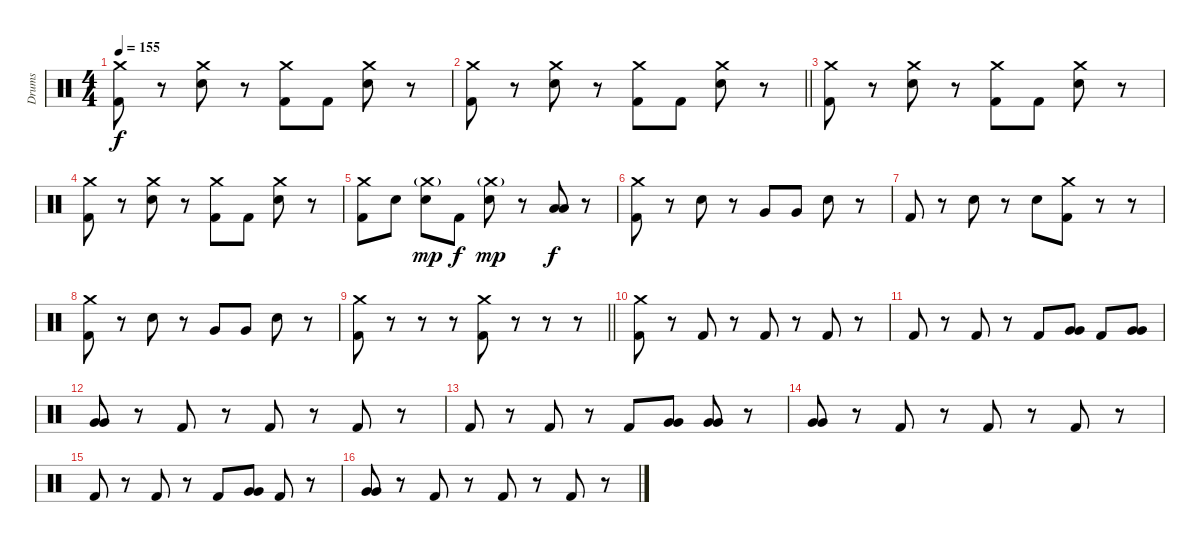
\track ("Drums" "Drums") {instrument percussion}
\staff {score}
\articulation defaults
\ts (4 4)
\tempo 155
\clef neutral
\ks c
("Crash medium (hit)" "Kick (hit) 2").8{dy f} r.8 ("Crash medium (hit)" "Electric Snare (hit)").8 r.8 ("Crash medium (hit)" "Kick (hit) 2").8 "Kick (hit) 2".8 ("Crash medium (hit)" "Electric Snare (hit)").8 r.8 |
\barLineRight lightlight
("Crash medium (hit)" "Kick (hit) 2").8 r.8 ("Crash medium (hit)" "Electric Snare (hit)").8 r.8 ("Crash medium (hit)" "Kick (hit) 2").8 "Kick (hit) 2".8 ("Crash medium (hit)" "Electric Snare (hit)").8 r.8 |
("Crash medium (hit)" "Kick (hit) 2").8 r.8 ("Crash medium (hit)" "Electric Snare (hit)").8 r.8 ("Crash medium (hit)" "Kick (hit) 2").8 "Kick (hit) 2".8 ("Crash medium (hit)" "Electric Snare (hit)").8 r.8 |
("Crash medium (hit)" "Kick (hit) 2").8 r.8 ("Crash medium (hit)" "Electric Snare (hit)").8 r.8 ("Crash medium (hit)" "Kick (hit) 2").8 "Kick (hit) 2".8 ("Crash medium (hit)" "Electric Snare (hit)").8 r.8 |
("Crash medium (hit)" "Kick (hit) 2").8 "Electric Snare (hit)".8 ("Crash medium (hit)"{g} "Electric Snare (hit)").8{dy mp} "Kick (hit) 2".8{dy f} ("Crash medium (hit)"{g} "Electric Snare (hit)").8{dy mp} r.8 ("Low Tom (hit)" "Low Tom (hit)").8{dy f} r.8 |
("Crash medium (hit)" "Kick (hit) 2").8 r.8 "Electric Snare (hit)".8 r.8 "Very Low Tom (hit)".8 "Very Low Tom (hit)".8 "Electric Snare (hit)".8 r.8 |
"Kick (hit) 2".8 r.8 "Electric Snare (hit)".8 r.8 "Electric Snare (hit)".8 ("Crash medium (hit)" "Kick (hit) 2").8 r.8 r.8 |
("Crash medium (hit)" "Kick (hit) 2").8 r.8 "Electric Snare (hit)".8 r.8 "Very Low Tom (hit)".8 "Very Low Tom (hit)".8 "Electric Snare (hit)".8 r.8 |
\barLineRight lightlight
("Crash medium (hit)" "Kick (hit) 2").8 r.8 r.8 r.8 ("Crash medium (hit)" "Kick (hit) 2").8 r.8 r.8 r.8 |
\section ("" "")
("Crash medium (hit)" "Kick (hit) 2").8 r.8 "Kick (hit) 2".8 r.8 "Kick (hit) 2".8 r.8 "Kick (hit) 2".8 r.8 |
"Kick (hit) 2".8 r.8 "Kick (hit) 2".8 r.8 "Kick (hit) 2".8 ("Very Low Tom (hit)" "Very Low Tom (hit)").8 "Kick (hit) 2".8 ("Very Low Tom (hit)" "Very Low Tom (hit)").8 |
("Very Low Tom (hit)" "Very Low Tom (hit)").8 r.8 "Kick (hit) 2".8 r.8 "Kick (hit) 2".8 r.8 "Kick (hit) 2".8 r.8 |
"Kick (hit) 2".8 r.8 "Kick (hit) 2".8 r.8 "Kick (hit) 2".8 ("Very Low Tom (hit)" "Very Low Tom (hit)").8 ("Very Low Tom (hit)" "Very Low Tom (hit)").8 r.8 |
("Very Low Tom (hit)" "Very Low Tom (hit)").8 r.8 "Kick (hit) 2".8 r.8 "Kick (hit) 2".8 r.8 "Kick (hit) 2".8 r.8 |
"Kick (hit) 2".8 r.8 "Kick (hit) 2".8 r.8 "Kick (hit) 2".8 ("Very Low Tom (hit)" "Very Low Tom (hit)").8 "Kick (hit) 2".8 r.8 |
("Very Low Tom (hit)" "Very Low Tom (hit)").8 r.8 "Kick (hit) 2".8 r.8 "Kick (hit) 2".8 r.8 "Kick (hit) 2".8 r.8
